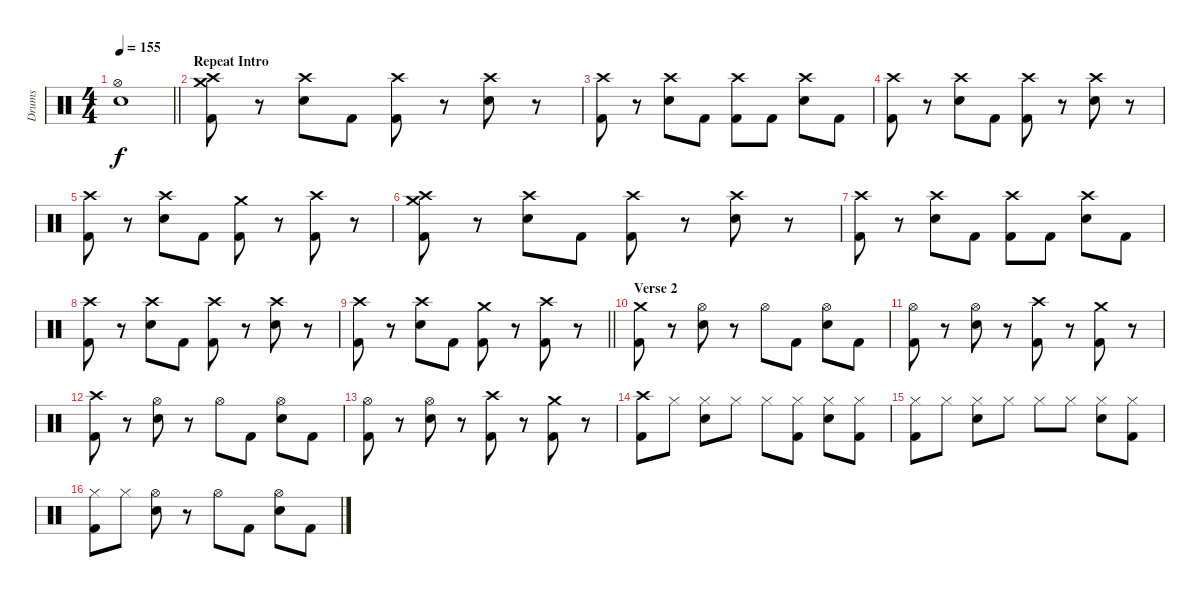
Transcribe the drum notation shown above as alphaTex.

\track ("Drums" "Drums") {instrument percussion}
\staff {score}
\articulation defaults
\ts (4 4)
\tempo 155
\clef neutral
\barLineRight lightlight
\ks c
("Electric Snare (hit)" "Hi-Hat (open)").1{dy f} |
\section ("" "Repeat Intro")
("Crash medium (hit)" "Crash high (hit)" "Kick (hit) 2").8 r.8 ("Crash high (hit)" "Electric Snare (hit)").8 "Kick (hit) 2".8 ("Crash high (hit)" "Kick (hit) 2").8 r.8 ("Crash high (hit)" "Electric Snare (hit)").8 r.8 |
("Crash high (hit)" "Kick (hit) 2").8 r.8 ("Crash high (hit)" "Electric Snare (hit)").8 "Kick (hit) 2".8 ("Crash high (hit)" "Kick (hit) 2").8 "Kick (hit) 2".8 ("Crash high (hit)" "Electric Snare (hit)").8 "Kick (hit) 2".8 |
("Crash high (hit)" "Kick (hit) 2").8 r.8 ("Crash high (hit)" "Electric Snare (hit)").8 "Kick (hit) 2".8 ("Crash high (hit)" "Kick (hit) 2").8 r.8 ("Crash high (hit)" "Electric Snare (hit)").8 r.8 |
("Crash high (hit)" "Kick (hit) 2").8 r.8 ("Crash high (hit)" "Electric Snare (hit)").8 "Kick (hit) 2".8 ("Crash medium (hit)" "Kick (hit) 2").8 r.8 ("Crash high (hit)" "Kick (hit) 2").8 r.8 |
("Crash medium (hit)" "Crash high (hit)" "Kick (hit) 2").8 r.8 ("Crash high (hit)" "Electric Snare (hit)").8 "Kick (hit) 2".8 ("Crash high (hit)" "Kick (hit) 2").8 r.8 ("Crash high (hit)" "Electric Snare (hit)").8 r.8 |
("Crash high (hit)" "Kick (hit) 2").8 r.8 ("Crash high (hit)" "Electric Snare (hit)").8 "Kick (hit) 2".8 ("Crash high (hit)" "Kick (hit) 2").8 "Kick (hit) 2".8 ("Crash high (hit)" "Electric Snare (hit)").8 "Kick (hit) 2".8 |
("Crash high (hit)" "Kick (hit) 2").8 r.8 ("Crash high (hit)" "Electric Snare (hit)").8 "Kick (hit) 2".8 ("Crash high (hit)" "Kick (hit) 2").8 r.8 ("Crash high (hit)" "Electric Snare (hit)").8 r.8 |
\barLineRight lightlight
("Crash high (hit)" "Kick (hit) 2").8 r.8 ("Crash high (hit)" "Electric Snare (hit)").8 "Kick (hit) 2".8 ("Crash medium (hit)" "Kick (hit) 2").8 r.8 ("Crash high (hit)" "Kick (hit) 2").8 r.8 |
\section ("" "Verse 2")
("Crash medium (hit)" "Kick (hit) 2").8 r.8 ("Hi-Hat (open)" "Electric Snare (hit)").8 r.8 "Hi-Hat (open)".8 "Kick (hit) 2".8 ("Hi-Hat (open)" "Electric Snare (hit)").8 "Kick (hit) 2".8 |
("Hi-Hat (open)" "Kick (hit) 2").8 r.8 ("Hi-Hat (open)" "Electric Snare (hit)").8 r.8 ("Crash high (hit)" "Kick (hit) 2").8 r.8 ("Crash medium (hit)" "Kick (hit) 2").8 r.8 |
("Crash high (hit)" "Kick (hit) 2").8 r.8 ("Hi-Hat (open)" "Electric Snare (hit)").8 r.8 "Hi-Hat (open)".8 "Kick (hit) 2".8 ("Hi-Hat (open)" "Electric Snare (hit)").8 "Kick (hit) 2".8 |
("Hi-Hat (open)" "Kick (hit) 2").8 r.8 ("Hi-Hat (open)" "Electric Snare (hit)").8 r.8 ("Crash high (hit)" "Kick (hit) 2").8 r.8 ("Crash medium (hit)" "Kick (hit) 2").8 r.8 |
("Crash high (hit)" "Kick (hit) 2").8 "Hi-Hat (closed)".8 ("Hi-Hat (closed)" "Electric Snare (hit)").8 "Hi-Hat (closed)".8 "Hi-Hat (closed)".8 ("Hi-Hat (closed)" "Kick (hit) 2").8 ("Hi-Hat (closed)" "Electric Snare (hit)").8 ("Hi-Hat (closed)" "Kick (hit) 2").8 |
("Hi-Hat (closed)" "Kick (hit) 2").8 "Hi-Hat (closed)".8 ("Hi-Hat (closed)" "Electric Snare (hit)").8 "Hi-Hat (closed)".8 "Hi-Hat (closed)".8 "Hi-Hat (closed)".8 ("Hi-Hat (closed)" "Electric Snare (hit)").8 ("Hi-Hat (closed)" "Kick (hit) 2").8 |
("Hi-Hat (closed)" "Kick (hit) 2").8 "Hi-Hat (closed)".8 ("Hi-Hat (open)" "Electric Snare (hit)").8 r.8 "Hi-Hat (open)".8 "Kick (hit) 2".8 ("Hi-Hat (open)" "Electric Snare (hit)").8 "Kick (hit) 2".8
